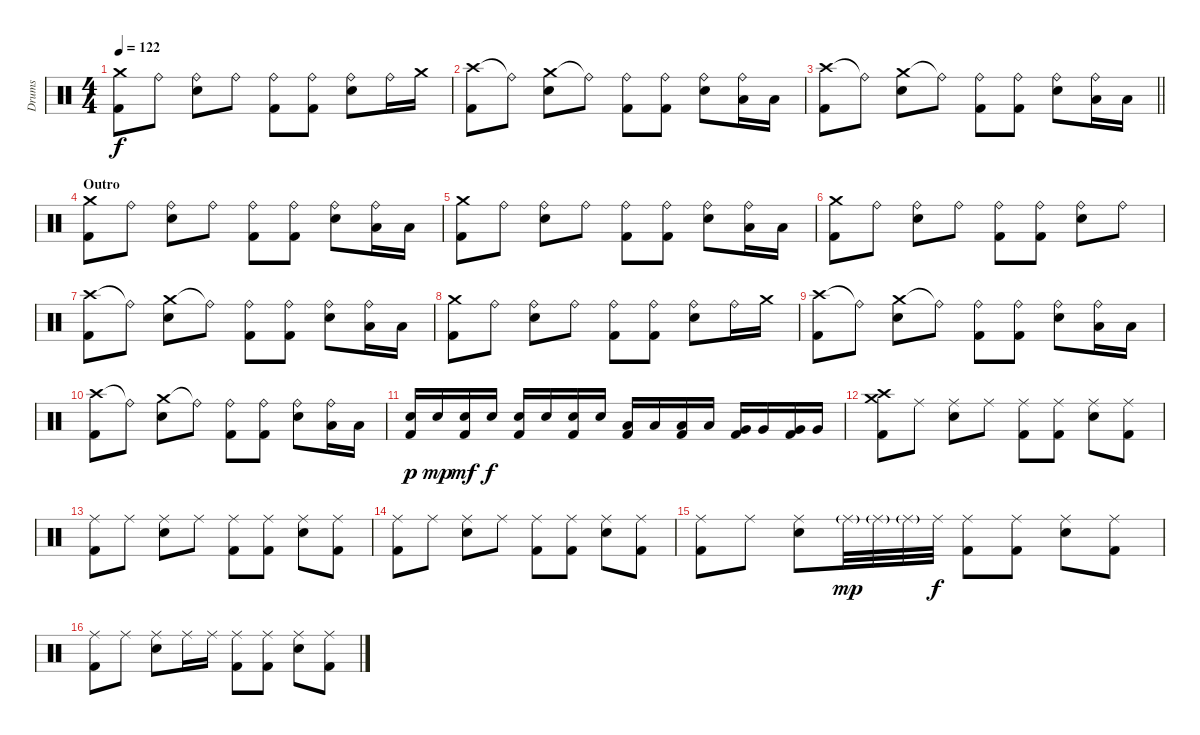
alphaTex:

\track ("Drums" "Drums") {instrument percussion}
\staff {score}
\articulation defaults
\ts (4 4)
\tempo 122
\clef neutral
\ks c
("Crash medium (hit)" "Kick (hit) 2").8{dy f} "Ride (bell)".8 ("Ride (bell)" "Snare (hit) 2").8 "Ride (bell)".8 ("Ride (bell)" "Kick (hit) 2").8 ("Ride (bell)" "Kick (hit) 2").8 ("Ride (bell)" "Snare (hit) 2").8 "Ride (bell)".16 "Crash medium (hit)".16 |
("Crash high (hit)" "Kick (hit) 2").8 "Ride (bell)"{t}.8 ("Crash medium (hit)" "Snare (hit) 2").8 "Ride (bell)"{t}.8 ("Ride (bell)" "Kick (hit) 2").8 ("Ride (bell)" "Kick (hit) 2").8 ("Ride (bell)" "Snare (hit) 2").8 ("Ride (bell)" "Low Tom (hit)").16 "Low Tom (hit)".16 |
\barLineRight lightlight
("Crash high (hit)" "Kick (hit) 2").8 "Ride (bell)"{t}.8 ("Crash medium (hit)" "Snare (hit) 2").8 "Ride (bell)"{t}.8 ("Ride (bell)" "Kick (hit) 2").8 ("Ride (bell)" "Kick (hit) 2").8 ("Ride (bell)" "Snare (hit) 2").8 ("Ride (bell)" "Low Tom (hit)").16 "Low Tom (hit)".16 |
\section ("" "Outro")
("Crash medium (hit)" "Kick (hit) 2").8 "Ride (bell)".8 ("Ride (bell)" "Snare (hit) 2").8 "Ride (bell)".8 ("Ride (bell)" "Kick (hit) 2").8 ("Ride (bell)" "Kick (hit) 2").8 ("Ride (bell)" "Snare (hit) 2").8 ("Ride (bell)" "Low Tom (hit)").16 "Low Tom (hit)".16 |
("Crash medium (hit)" "Kick (hit) 2").8 "Ride (bell)".8 ("Ride (bell)" "Snare (hit) 2").8 "Ride (bell)".8 ("Ride (bell)" "Kick (hit) 2").8 ("Ride (bell)" "Kick (hit) 2").8 ("Ride (bell)" "Snare (hit) 2").8 ("Ride (bell)" "Low Tom (hit)").16 "Low Tom (hit)".16 |
("Crash medium (hit)" "Kick (hit) 2").8 "Ride (bell)".8 ("Ride (bell)" "Snare (hit) 2").8 "Ride (bell)".8 ("Ride (bell)" "Kick (hit) 2").8 ("Ride (bell)" "Kick (hit) 2").8 ("Ride (bell)" "Snare (hit) 2").8 "Ride (bell)".8 |
("Crash high (hit)" "Kick (hit) 2").8 "Ride (bell)"{t}.8 ("Crash medium (hit)" "Snare (hit) 2").8 "Ride (bell)"{t}.8 ("Ride (bell)" "Kick (hit) 2").8 ("Ride (bell)" "Kick (hit) 2").8 ("Ride (bell)" "Snare (hit) 2").8 ("Ride (bell)" "Low Tom (hit)").16 "Low Tom (hit)".16 |
("Crash medium (hit)" "Kick (hit) 2").8 "Ride (bell)".8 ("Ride (bell)" "Snare (hit) 2").8 "Ride (bell)".8 ("Ride (bell)" "Kick (hit) 2").8 ("Ride (bell)" "Kick (hit) 2").8 ("Ride (bell)" "Snare (hit) 2").8 "Ride (bell)".16 "Crash medium (hit)".16 |
("Crash high (hit)" "Kick (hit) 2").8 "Ride (bell)"{t}.8 ("Crash medium (hit)" "Snare (hit) 2").8 "Ride (bell)"{t}.8 ("Ride (bell)" "Kick (hit) 2").8 ("Ride (bell)" "Kick (hit) 2").8 ("Ride (bell)" "Snare (hit) 2").8 ("Ride (bell)" "Low Tom (hit)").16 "Low Tom (hit)".16 |
("Crash high (hit)" "Kick (hit) 2").8 "Ride (bell)"{t}.8 ("Crash medium (hit)" "Snare (hit) 2").8 "Ride (bell)"{t}.8 ("Ride (bell)" "Kick (hit) 2").8 ("Ride (bell)" "Kick (hit) 2").8 ("Ride (bell)" "Snare (hit) 2").8 ("Ride (bell)" "Low Tom (hit)").16 "Low Tom (hit)".16 |
("Snare (hit) 2" "Kick (hit) 2").16{dy p} "Snare (hit) 2".16{dy mp} ("Snare (hit) 2" "Kick (hit) 2").16{dy mf} "Snare (hit) 2".16{dy f} ("Snare (hit) 2" "Kick (hit) 2").16 "Snare (hit) 2".16 ("Snare (hit) 2" "Kick (hit) 2").16 "Snare (hit) 2".16 ("Low Tom (hit)" "Kick (hit) 2").16 "Low Tom (hit)".16 ("Low Tom (hit)" "Kick (hit) 2").16 "Low Tom (hit)".16 ("Very Low Tom (hit)" "Kick (hit) 2").16 "Very Low Tom (hit)".16 ("Very Low Tom (hit)" "Kick (hit) 2").16 "Very Low Tom (hit)".16 |
("Crash medium (hit)" "Crash high (hit)" "Kick (hit) 2").8 "Ride (middle)".8 ("Ride (middle)" "Snare (hit) 2").8 "Ride (middle)".8 ("Ride (middle)" "Kick (hit) 2").8 ("Ride (middle)" "Kick (hit) 2").8 ("Ride (middle)" "Snare (hit) 2").8 ("Ride (middle)" "Kick (hit) 2").8 |
("Ride (middle)" "Kick (hit) 2").8 "Ride (middle)".8 ("Ride (middle)" "Snare (hit) 2").8 "Ride (middle)".8 ("Ride (middle)" "Kick (hit) 2").8 ("Ride (middle)" "Kick (hit) 2").8 ("Ride (middle)" "Snare (hit) 2").8 ("Ride (middle)" "Kick (hit) 2").8 |
("Ride (middle)" "Kick (hit) 2").8 "Ride (middle)".8 ("Ride (middle)" "Snare (hit) 2").8 "Ride (middle)".8 ("Ride (middle)" "Kick (hit) 2").8 ("Ride (middle)" "Kick (hit) 2").8 ("Ride (middle)" "Snare (hit) 2").8 ("Ride (middle)" "Kick (hit) 2").8 |
("Ride (middle)" "Kick (hit) 2").8 "Ride (middle)".8 ("Ride (middle)" "Snare (hit) 2").8 "Ride (middle)"{g}.32{dy mp} "Ride (middle)"{g}.32 "Ride (middle)"{g}.32 "Ride (middle)".32{dy f} ("Ride (middle)" "Kick (hit) 2").8 ("Ride (middle)" "Kick (hit) 2").8 ("Ride (middle)" "Snare (hit) 2").8 ("Ride (middle)" "Kick (hit) 2").8 |
("Ride (middle)" "Kick (hit) 2").8 "Ride (middle)".8 ("Ride (middle)" "Snare (hit) 2").8 "Ride (middle)".16 "Ride (middle)".16 ("Ride (middle)" "Kick (hit) 2").8 ("Ride (middle)" "Kick (hit) 2").8 ("Ride (middle)" "Snare (hit) 2").8 ("Ride (middle)" "Kick (hit) 2").8
